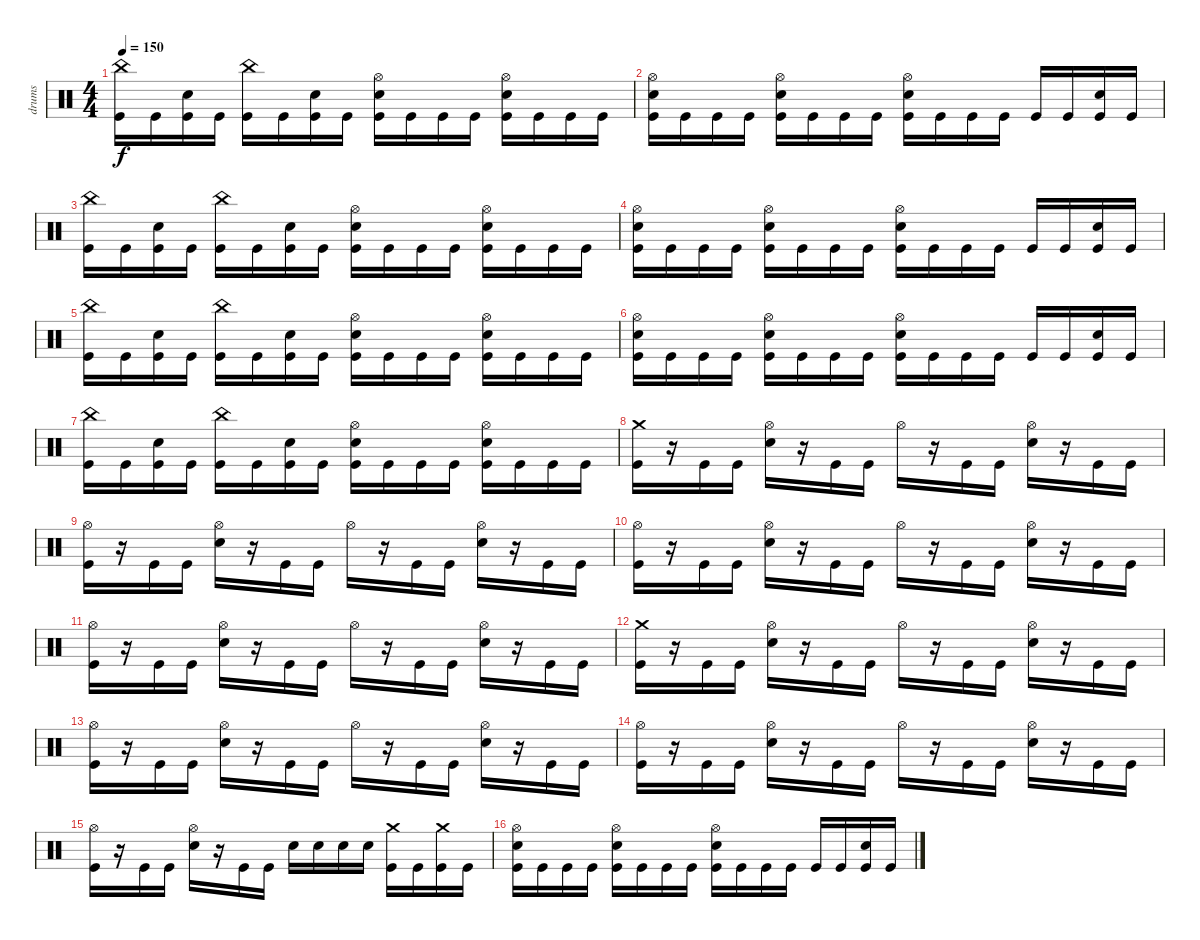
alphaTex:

\track ("drums" "drums") {instrument percussion}
\staff {score}
\articulation defaults
\ts (4 4)
\tempo 150
\clef neutral
\ks c
("China (hit)" "Kick (hit)").16{dy f} "Kick (hit)".16 ("Electric Snare (hit)" "Kick (hit)").16 "Kick (hit)".16 ("China (hit)" "Kick (hit)").16 "Kick (hit)".16 ("Electric Snare (hit)" "Kick (hit)").16 "Kick (hit)".16 ("Hi-Hat (open)" "Electric Snare (hit)" "Kick (hit)").16 "Kick (hit)".16 "Kick (hit)".16 "Kick (hit)".16 ("Hi-Hat (open)" "Electric Snare (hit)" "Kick (hit)").16 "Kick (hit)".16 "Kick (hit)".16 "Kick (hit)".16 |
("Hi-Hat (open)" "Electric Snare (hit)" "Kick (hit)").16 "Kick (hit)".16 "Kick (hit)".16 "Kick (hit)".16 ("Hi-Hat (open)" "Kick (hit)" "Electric Snare (hit)").16 "Kick (hit)".16 "Kick (hit)".16 "Kick (hit)".16 ("Hi-Hat (open)" "Kick (hit)" "Electric Snare (hit)").16 "Kick (hit)".16 "Kick (hit)".16 "Kick (hit)".16 "Kick (hit)".16 "Kick (hit)".16 ("Kick (hit)" "Electric Snare (hit)").16 "Kick (hit)".16 |
("China (hit)" "Kick (hit)").16 "Kick (hit)".16 ("Electric Snare (hit)" "Kick (hit)").16 "Kick (hit)".16 ("China (hit)" "Kick (hit)").16 "Kick (hit)".16 ("Electric Snare (hit)" "Kick (hit)").16 "Kick (hit)".16 ("Hi-Hat (open)" "Electric Snare (hit)" "Kick (hit)").16 "Kick (hit)".16 "Kick (hit)".16 "Kick (hit)".16 ("Hi-Hat (open)" "Electric Snare (hit)" "Kick (hit)").16 "Kick (hit)".16 "Kick (hit)".16 "Kick (hit)".16 |
("Hi-Hat (open)" "Electric Snare (hit)" "Kick (hit)").16 "Kick (hit)".16 "Kick (hit)".16 "Kick (hit)".16 ("Hi-Hat (open)" "Kick (hit)" "Electric Snare (hit)").16 "Kick (hit)".16 "Kick (hit)".16 "Kick (hit)".16 ("Hi-Hat (open)" "Kick (hit)" "Electric Snare (hit)").16 "Kick (hit)".16 "Kick (hit)".16 "Kick (hit)".16 "Kick (hit)".16 "Kick (hit)".16 ("Kick (hit)" "Electric Snare (hit)").16 "Kick (hit)".16 |
("China (hit)" "Kick (hit)").16 "Kick (hit)".16 ("Electric Snare (hit)" "Kick (hit)").16 "Kick (hit)".16 ("China (hit)" "Kick (hit)").16 "Kick (hit)".16 ("Electric Snare (hit)" "Kick (hit)").16 "Kick (hit)".16 ("Hi-Hat (open)" "Electric Snare (hit)" "Kick (hit)").16 "Kick (hit)".16 "Kick (hit)".16 "Kick (hit)".16 ("Hi-Hat (open)" "Electric Snare (hit)" "Kick (hit)").16 "Kick (hit)".16 "Kick (hit)".16 "Kick (hit)".16 |
("Hi-Hat (open)" "Electric Snare (hit)" "Kick (hit)").16 "Kick (hit)".16 "Kick (hit)".16 "Kick (hit)".16 ("Hi-Hat (open)" "Kick (hit)" "Electric Snare (hit)").16 "Kick (hit)".16 "Kick (hit)".16 "Kick (hit)".16 ("Hi-Hat (open)" "Kick (hit)" "Electric Snare (hit)").16 "Kick (hit)".16 "Kick (hit)".16 "Kick (hit)".16 "Kick (hit)".16 "Kick (hit)".16 ("Kick (hit)" "Electric Snare (hit)").16 "Kick (hit)".16 |
("China (hit)" "Kick (hit)").16 "Kick (hit)".16 ("Electric Snare (hit)" "Kick (hit)").16 "Kick (hit)".16 ("China (hit)" "Kick (hit)").16 "Kick (hit)".16 ("Electric Snare (hit)" "Kick (hit)").16 "Kick (hit)".16 ("Hi-Hat (open)" "Electric Snare (hit)" "Kick (hit)").16 "Kick (hit)".16 "Kick (hit)".16 "Kick (hit)".16 ("Hi-Hat (open)" "Electric Snare (hit)" "Kick (hit)").16 "Kick (hit)".16 "Kick (hit)".16 "Kick (hit)".16 |
("Crash medium (hit)" "Kick (hit)").16 r.16 "Kick (hit)".16 "Kick (hit)".16 ("Hi-Hat (open)" "Electric Snare (hit)").16 r.16 "Kick (hit)".16 "Kick (hit)".16 "Hi-Hat (open)".16 r.16 "Kick (hit)".16 "Kick (hit)".16 ("Hi-Hat (open)" "Electric Snare (hit)").16 r.16 "Kick (hit)".16 "Kick (hit)".16 |
("Hi-Hat (open)" "Kick (hit)").16 r.16 "Kick (hit)".16 "Kick (hit)".16 ("Hi-Hat (open)" "Electric Snare (hit)").16 r.16 "Kick (hit)".16 "Kick (hit)".16 "Hi-Hat (open)".16 r.16 "Kick (hit)".16 "Kick (hit)".16 ("Electric Snare (hit)" "Hi-Hat (open)").16 r.16 "Kick (hit)".16 "Kick (hit)".16 |
("Hi-Hat (open)" "Kick (hit)").16 r.16 "Kick (hit)".16 "Kick (hit)".16 ("Hi-Hat (open)" "Electric Snare (hit)").16 r.16 "Kick (hit)".16 "Kick (hit)".16 "Hi-Hat (open)".16 r.16 "Kick (hit)".16 "Kick (hit)".16 ("Hi-Hat (open)" "Electric Snare (hit)").16 r.16 "Kick (hit)".16 "Kick (hit)".16 |
("Hi-Hat (open)" "Kick (hit)").16 r.16 "Kick (hit)".16 "Kick (hit)".16 ("Hi-Hat (open)" "Electric Snare (hit)").16 r.16 "Kick (hit)".16 "Kick (hit)".16 "Hi-Hat (open)".16 r.16 "Kick (hit)".16 "Kick (hit)".16 ("Electric Snare (hit)" "Hi-Hat (open)").16 r.16 "Kick (hit)".16 "Kick (hit)".16 |
("Crash medium (hit)" "Kick (hit)").16 r.16 "Kick (hit)".16 "Kick (hit)".16 ("Hi-Hat (open)" "Electric Snare (hit)").16 r.16 "Kick (hit)".16 "Kick (hit)".16 "Hi-Hat (open)".16 r.16 "Kick (hit)".16 "Kick (hit)".16 ("Hi-Hat (open)" "Electric Snare (hit)").16 r.16 "Kick (hit)".16 "Kick (hit)".16 |
("Hi-Hat (open)" "Kick (hit)").16 r.16 "Kick (hit)".16 "Kick (hit)".16 ("Hi-Hat (open)" "Electric Snare (hit)").16 r.16 "Kick (hit)".16 "Kick (hit)".16 "Hi-Hat (open)".16 r.16 "Kick (hit)".16 "Kick (hit)".16 ("Electric Snare (hit)" "Hi-Hat (open)").16 r.16 "Kick (hit)".16 "Kick (hit)".16 |
("Hi-Hat (open)" "Kick (hit)").16 r.16 "Kick (hit)".16 "Kick (hit)".16 ("Hi-Hat (open)" "Electric Snare (hit)").16 r.16 "Kick (hit)".16 "Kick (hit)".16 "Hi-Hat (open)".16 r.16 "Kick (hit)".16 "Kick (hit)".16 ("Hi-Hat (open)" "Electric Snare (hit)").16 r.16 "Kick (hit)".16 "Kick (hit)".16 |
("Hi-Hat (open)" "Kick (hit)").16 r.16 "Kick (hit)".16 "Kick (hit)".16 ("Hi-Hat (open)" "Electric Snare (hit)").16 r.16 "Kick (hit)".16 "Kick (hit)".16 "Electric Snare (hit)".16 "Electric Snare (hit)".16 "Electric Snare (hit)".16 "Electric Snare (hit)".16 ("Crash medium (hit)" "Kick (hit)").16 "Kick (hit)".16 ("Crash medium (hit)" "Kick (hit)").16 "Kick (hit)".16 |
("Hi-Hat (open)" "Electric Snare (hit)" "Kick (hit)").16 "Kick (hit)".16 "Kick (hit)".16 "Kick (hit)".16 ("Hi-Hat (open)" "Kick (hit)" "Electric Snare (hit)").16 "Kick (hit)".16 "Kick (hit)".16 "Kick (hit)".16 ("Hi-Hat (open)" "Kick (hit)" "Electric Snare (hit)").16 "Kick (hit)".16 "Kick (hit)".16 "Kick (hit)".16 "Kick (hit)".16 "Kick (hit)".16 ("Kick (hit)" "Electric Snare (hit)").16 "Kick (hit)".16
